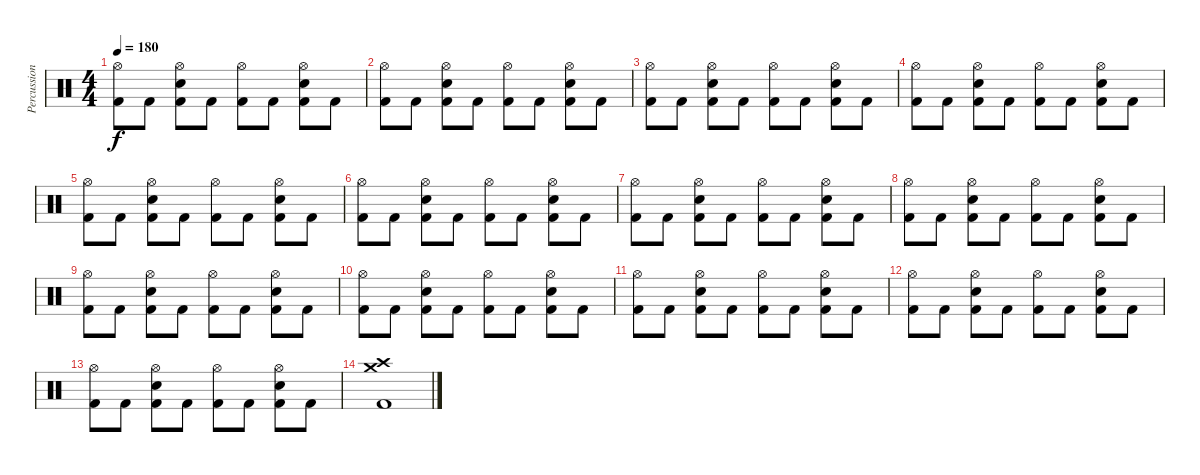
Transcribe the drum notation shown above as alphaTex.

\track ("Percussion" "Percussion") {instrument percussion}
\staff {score}
\articulation defaults
\ts (4 4)
\tempo 180
\clef neutral
\ks c
("Hi-Hat (open)" "Kick (hit) 2").8{dy f} "Kick (hit) 2".8 ("Hi-Hat (open)" "Snare (hit) 2" "Kick (hit) 2").8 "Kick (hit) 2".8 ("Hi-Hat (open)" "Kick (hit) 2").8 "Kick (hit) 2".8 ("Hi-Hat (open)" "Snare (hit) 2" "Kick (hit) 2").8 "Kick (hit) 2".8 |
("Hi-Hat (open)" "Kick (hit) 2").8 "Kick (hit) 2".8 ("Hi-Hat (open)" "Snare (hit) 2" "Kick (hit) 2").8 "Kick (hit) 2".8 ("Hi-Hat (open)" "Kick (hit) 2").8 "Kick (hit) 2".8 ("Hi-Hat (open)" "Snare (hit) 2" "Kick (hit) 2").8 "Kick (hit) 2".8 |
("Hi-Hat (open)" "Kick (hit) 2").8 "Kick (hit) 2".8 ("Hi-Hat (open)" "Snare (hit) 2" "Kick (hit) 2").8 "Kick (hit) 2".8 ("Hi-Hat (open)" "Kick (hit) 2").8 "Kick (hit) 2".8 ("Hi-Hat (open)" "Snare (hit) 2" "Kick (hit) 2").8 "Kick (hit) 2".8 |
("Hi-Hat (open)" "Kick (hit) 2").8 "Kick (hit) 2".8 ("Hi-Hat (open)" "Snare (hit) 2" "Kick (hit) 2").8 "Kick (hit) 2".8 ("Hi-Hat (open)" "Kick (hit) 2").8 "Kick (hit) 2".8 ("Hi-Hat (open)" "Snare (hit) 2" "Kick (hit) 2").8 "Kick (hit) 2".8 |
("Hi-Hat (open)" "Kick (hit) 2").8 "Kick (hit) 2".8 ("Hi-Hat (open)" "Snare (hit) 2" "Kick (hit) 2").8 "Kick (hit) 2".8 ("Hi-Hat (open)" "Kick (hit) 2").8 "Kick (hit) 2".8 ("Hi-Hat (open)" "Snare (hit) 2" "Kick (hit) 2").8 "Kick (hit) 2".8 |
("Hi-Hat (open)" "Kick (hit) 2").8 "Kick (hit) 2".8 ("Hi-Hat (open)" "Snare (hit) 2" "Kick (hit) 2").8 "Kick (hit) 2".8 ("Hi-Hat (open)" "Kick (hit) 2").8 "Kick (hit) 2".8 ("Hi-Hat (open)" "Snare (hit) 2" "Kick (hit) 2").8 "Kick (hit) 2".8 |
("Hi-Hat (open)" "Kick (hit) 2").8 "Kick (hit) 2".8 ("Hi-Hat (open)" "Snare (hit) 2" "Kick (hit) 2").8 "Kick (hit) 2".8 ("Hi-Hat (open)" "Kick (hit) 2").8 "Kick (hit) 2".8 ("Hi-Hat (open)" "Snare (hit) 2" "Kick (hit) 2").8 "Kick (hit) 2".8 |
("Hi-Hat (open)" "Kick (hit) 2").8 "Kick (hit) 2".8 ("Hi-Hat (open)" "Snare (hit) 2" "Kick (hit) 2").8 "Kick (hit) 2".8 ("Hi-Hat (open)" "Kick (hit) 2").8 "Kick (hit) 2".8 ("Hi-Hat (open)" "Snare (hit) 2" "Kick (hit) 2").8 "Kick (hit) 2".8 |
("Hi-Hat (open)" "Kick (hit) 2").8 "Kick (hit) 2".8 ("Hi-Hat (open)" "Snare (hit) 2" "Kick (hit) 2").8 "Kick (hit) 2".8 ("Hi-Hat (open)" "Kick (hit) 2").8 "Kick (hit) 2".8 ("Hi-Hat (open)" "Snare (hit) 2" "Kick (hit) 2").8 "Kick (hit) 2".8 |
("Hi-Hat (open)" "Kick (hit) 2").8 "Kick (hit) 2".8 ("Hi-Hat (open)" "Snare (hit) 2" "Kick (hit) 2").8 "Kick (hit) 2".8 ("Hi-Hat (open)" "Kick (hit) 2").8 "Kick (hit) 2".8 ("Hi-Hat (open)" "Snare (hit) 2" "Kick (hit) 2").8 "Kick (hit) 2".8 |
("Hi-Hat (open)" "Kick (hit) 2").8 "Kick (hit) 2".8 ("Hi-Hat (open)" "Snare (hit) 2" "Kick (hit) 2").8 "Kick (hit) 2".8 ("Hi-Hat (open)" "Kick (hit) 2").8 "Kick (hit) 2".8 ("Hi-Hat (open)" "Snare (hit) 2" "Kick (hit) 2").8 "Kick (hit) 2".8 |
("Hi-Hat (open)" "Kick (hit) 2").8 "Kick (hit) 2".8 ("Hi-Hat (open)" "Snare (hit) 2" "Kick (hit) 2").8 "Kick (hit) 2".8 ("Hi-Hat (open)" "Kick (hit) 2").8 "Kick (hit) 2".8 ("Hi-Hat (open)" "Snare (hit) 2" "Kick (hit) 2").8 "Kick (hit) 2".8 |
("Hi-Hat (open)" "Kick (hit) 2").8 "Kick (hit) 2".8 ("Hi-Hat (open)" "Snare (hit) 2" "Kick (hit) 2").8 "Kick (hit) 2".8 ("Hi-Hat (open)" "Kick (hit) 2").8 "Kick (hit) 2".8 ("Hi-Hat (open)" "Snare (hit) 2" "Kick (hit) 2").8 "Kick (hit) 2".8 |
("Crash high (hit)" "Kick (hit) 2" "Crash medium (hit)").1
